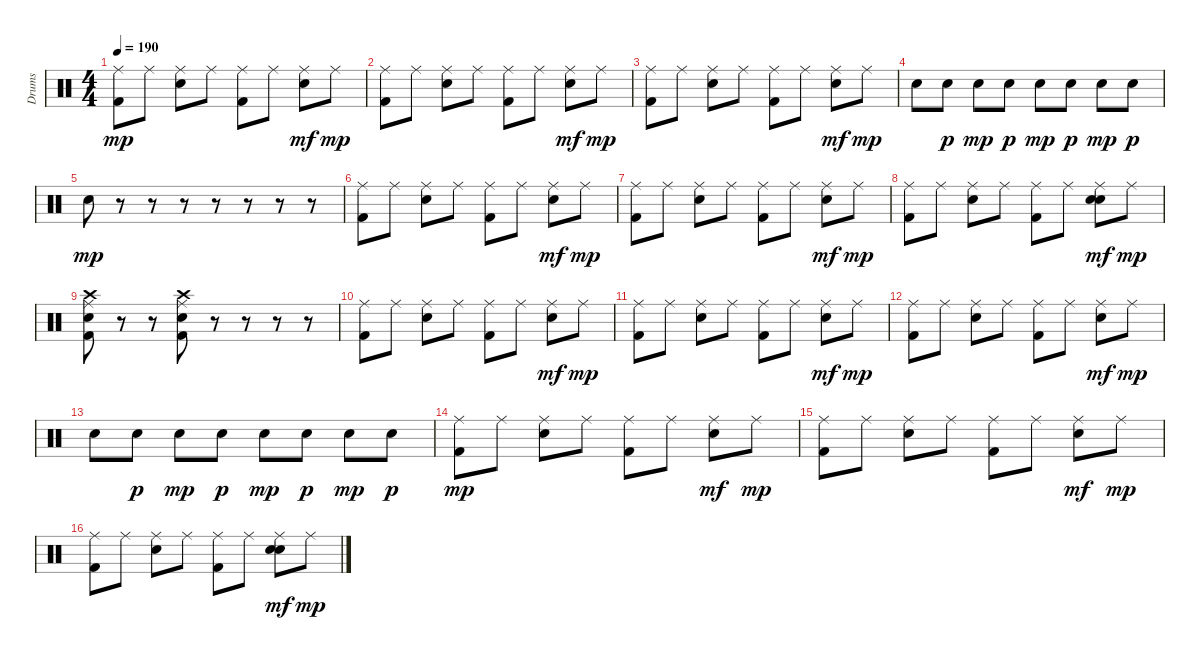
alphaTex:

\track ("Drums" "Drums") {instrument percussion}
\staff {score}
\articulation defaults
\ts (4 4)
\tempo 190
\clef neutral
\ks c
("Ride (middle)" "Kick (hit) 2").8{dy mp} "Ride (middle)".8 ("Ride (middle)" "Electric Snare (hit)").8 "Ride (middle)".8 ("Ride (middle)" "Kick (hit) 2").8 "Ride (middle)".8 ("Ride (middle)" "Electric Snare (hit)").8{dy mf} "Ride (middle)".8{dy mp} |
("Ride (middle)" "Kick (hit) 2").8 "Ride (middle)".8 ("Ride (middle)" "Electric Snare (hit)").8 "Ride (middle)".8 ("Ride (middle)" "Kick (hit) 2").8 "Ride (middle)".8 ("Ride (middle)" "Electric Snare (hit)").8{dy mf} "Ride (middle)".8{dy mp} |
("Ride (middle)" "Kick (hit) 2").8 "Ride (middle)".8 ("Ride (middle)" "Electric Snare (hit)").8 "Ride (middle)".8 ("Ride (middle)" "Kick (hit) 2").8 "Ride (middle)".8 ("Ride (middle)" "Electric Snare (hit)").8{dy mf} "Ride (middle)".8{dy mp} |
"Electric Snare (hit)".8 "Electric Snare (hit)".8{dy p} "Electric Snare (hit)".8{dy mp} "Electric Snare (hit)".8{dy p} "Electric Snare (hit)".8{dy mp} "Electric Snare (hit)".8{dy p} "Electric Snare (hit)".8{dy mp} "Electric Snare (hit)".8{dy p} |
"Electric Snare (hit)".8{dy mp} r.8 r.8 r.8 r.8 r.8 r.8 r.8 |
("Ride (middle)" "Kick (hit) 2").8 "Ride (middle)".8 ("Ride (middle)" "Electric Snare (hit)").8 "Ride (middle)".8 ("Ride (middle)" "Kick (hit) 2").8 "Ride (middle)".8 ("Ride (middle)" "Electric Snare (hit)").8{dy mf} "Ride (middle)".8{dy mp} |
("Ride (middle)" "Kick (hit) 2").8 "Ride (middle)".8 ("Ride (middle)" "Electric Snare (hit)").8 "Ride (middle)".8 ("Ride (middle)" "Kick (hit) 2").8 "Ride (middle)".8 ("Ride (middle)" "Electric Snare (hit)").8{dy mf} "Ride (middle)".8{dy mp} |
("Ride (middle)" "Kick (hit) 2").8 "Ride (middle)".8 ("Ride (middle)" "Electric Snare (hit)").8 "Ride (middle)".8 ("Ride (middle)" "Kick (hit) 2").8 "Ride (middle)".8 ("Ride (middle)" "Electric Snare (hit)" "Snare (hit) 2").8{dy mf} "Ride (middle)".8{dy mp} |
("Ride (middle)" "Crash high (hit)" "Electric Snare (hit)" "Kick (hit) 2").8 r.8 r.8 ("Ride (middle)" "Crash high (hit)" "Electric Snare (hit)" "Kick (hit) 2").8 r.8 r.8 r.8 r.8 |
("Ride (middle)" "Kick (hit) 2").8 "Ride (middle)".8 ("Ride (middle)" "Electric Snare (hit)").8 "Ride (middle)".8 ("Ride (middle)" "Kick (hit) 2").8 "Ride (middle)".8 ("Ride (middle)" "Electric Snare (hit)").8{dy mf} "Ride (middle)".8{dy mp} |
("Ride (middle)" "Kick (hit) 2").8 "Ride (middle)".8 ("Ride (middle)" "Electric Snare (hit)").8 "Ride (middle)".8 ("Ride (middle)" "Kick (hit) 2").8 "Ride (middle)".8 ("Ride (middle)" "Electric Snare (hit)").8{dy mf} "Ride (middle)".8{dy mp} |
("Ride (middle)" "Kick (hit) 2").8 "Ride (middle)".8 ("Ride (middle)" "Electric Snare (hit)").8 "Ride (middle)".8 ("Ride (middle)" "Kick (hit) 2").8 "Ride (middle)".8 ("Ride (middle)" "Electric Snare (hit)").8{dy mf} "Ride (middle)".8{dy mp} |
"Electric Snare (hit)".8 "Electric Snare (hit)".8{dy p} "Electric Snare (hit)".8{dy mp} "Electric Snare (hit)".8{dy p} "Electric Snare (hit)".8{dy mp} "Electric Snare (hit)".8{dy p} "Electric Snare (hit)".8{dy mp} "Electric Snare (hit)".8{dy p} |
("Ride (middle)" "Kick (hit) 2").8{dy mp} "Ride (middle)".8 ("Ride (middle)" "Electric Snare (hit)").8 "Ride (middle)".8 ("Ride (middle)" "Kick (hit) 2").8 "Ride (middle)".8 ("Ride (middle)" "Electric Snare (hit)").8{dy mf} "Ride (middle)".8{dy mp} |
("Ride (middle)" "Kick (hit) 2").8 "Ride (middle)".8 ("Ride (middle)" "Electric Snare (hit)").8 "Ride (middle)".8 ("Ride (middle)" "Kick (hit) 2").8 "Ride (middle)".8 ("Ride (middle)" "Electric Snare (hit)").8{dy mf} "Ride (middle)".8{dy mp} |
("Ride (middle)" "Kick (hit) 2").8 "Ride (middle)".8 ("Ride (middle)" "Electric Snare (hit)").8 "Ride (middle)".8 ("Ride (middle)" "Kick (hit) 2").8 "Ride (middle)".8 ("Ride (middle)" "Electric Snare (hit)" "Snare (hit) 2").8{dy mf} "Ride (middle)".8{dy mp}
